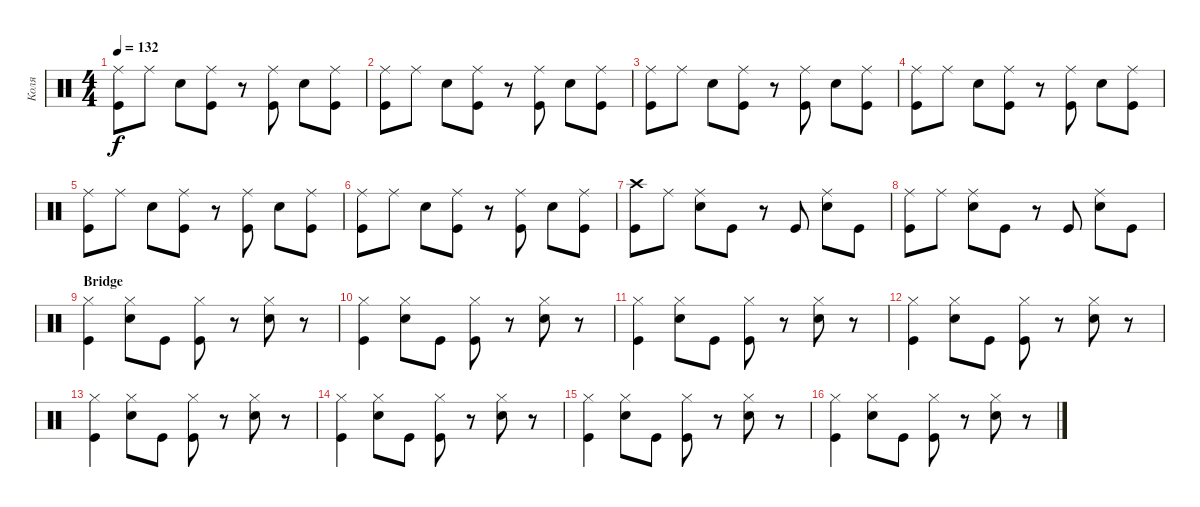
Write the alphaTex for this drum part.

\track ("Коля" "Коля") {instrument percussion}
\staff {score}
\articulation defaults
\ts (4 4)
\tempo 132
\clef neutral
\ks c
("Ride (middle)" "Kick (hit)").8{dy f} "Ride (middle)".8 "Snare (hit) 2".8 ("Ride (middle)" "Kick (hit)").8 r.8 ("Ride (middle)" "Kick (hit)").8 "Snare (hit) 2".8 ("Ride (middle)" "Kick (hit)").8 |
("Ride (middle)" "Kick (hit)").8 "Ride (middle)".8 "Snare (hit) 2".8 ("Ride (middle)" "Kick (hit)").8 r.8 ("Ride (middle)" "Kick (hit)").8 "Snare (hit) 2".8 ("Ride (middle)" "Kick (hit)").8 |
("Ride (middle)" "Kick (hit)").8 "Ride (middle)".8 "Snare (hit) 2".8 ("Ride (middle)" "Kick (hit)").8 r.8 ("Ride (middle)" "Kick (hit)").8 "Snare (hit) 2".8 ("Ride (middle)" "Kick (hit)").8 |
("Ride (middle)" "Kick (hit)").8 "Ride (middle)".8 "Snare (hit) 2".8 ("Ride (middle)" "Kick (hit)").8 r.8 ("Ride (middle)" "Kick (hit)").8 "Snare (hit) 2".8 ("Ride (middle)" "Kick (hit)").8 |
("Ride (middle)" "Kick (hit)").8 "Ride (middle)".8 "Snare (hit) 2".8 ("Ride (middle)" "Kick (hit)").8 r.8 ("Ride (middle)" "Kick (hit)").8 "Snare (hit) 2".8 ("Ride (middle)" "Kick (hit)").8 |
("Ride (middle)" "Kick (hit)").8 "Ride (middle)".8 "Snare (hit) 2".8 ("Ride (middle)" "Kick (hit)").8 r.8 ("Ride (middle)" "Kick (hit)").8 "Snare (hit) 2".8 ("Ride (middle)" "Kick (hit)").8 |
("Crash high (hit)" "Kick (hit)").8 "Ride (middle)".8 ("Ride (middle)" "Snare (hit) 2").8 "Kick (hit)".8 r.8 "Kick (hit)".8 ("Ride (middle)" "Snare (hit) 2").8 "Kick (hit)".8 |
("Ride (middle)" "Kick (hit)").8 "Ride (middle)".8 ("Ride (middle)" "Snare (hit) 2").8 "Kick (hit)".8 r.8 "Kick (hit)".8 ("Ride (middle)" "Snare (hit) 2").8 "Kick (hit)".8 |
\section ("" "Bridge")
("Hi-Hat (closed)" "Kick (hit)").4 ("Hi-Hat (closed)" "Snare (hit) 2").8 "Kick (hit)".8 ("Hi-Hat (closed)" "Kick (hit)").8 r.8 ("Hi-Hat (closed)" "Snare (hit) 2").8 r.8 |
("Hi-Hat (closed)" "Kick (hit)").4 ("Hi-Hat (closed)" "Snare (hit) 2").8 "Kick (hit)".8 ("Hi-Hat (closed)" "Kick (hit)").8 r.8 ("Hi-Hat (closed)" "Snare (hit) 2").8 r.8 |
("Hi-Hat (closed)" "Kick (hit)").4 ("Hi-Hat (closed)" "Snare (hit) 2").8 "Kick (hit)".8 ("Hi-Hat (closed)" "Kick (hit)").8 r.8 ("Hi-Hat (closed)" "Snare (hit) 2").8 r.8 |
("Hi-Hat (closed)" "Kick (hit)").4 ("Hi-Hat (closed)" "Snare (hit) 2").8 "Kick (hit)".8 ("Hi-Hat (closed)" "Kick (hit)").8 r.8 ("Hi-Hat (closed)" "Snare (hit) 2").8 r.8 |
("Hi-Hat (closed)" "Kick (hit)").4 ("Hi-Hat (closed)" "Snare (hit) 2").8 "Kick (hit)".8 ("Hi-Hat (closed)" "Kick (hit)").8 r.8 ("Hi-Hat (closed)" "Snare (hit) 2").8 r.8 |
("Hi-Hat (closed)" "Kick (hit)").4 ("Hi-Hat (closed)" "Snare (hit) 2").8 "Kick (hit)".8 ("Hi-Hat (closed)" "Kick (hit)").8 r.8 ("Hi-Hat (closed)" "Snare (hit) 2").8 r.8 |
("Hi-Hat (closed)" "Kick (hit)").4 ("Hi-Hat (closed)" "Snare (hit) 2").8 "Kick (hit)".8 ("Hi-Hat (closed)" "Kick (hit)").8 r.8 ("Hi-Hat (closed)" "Snare (hit) 2").8 r.8 |
("Hi-Hat (closed)" "Kick (hit)").4 ("Hi-Hat (closed)" "Snare (hit) 2").8 "Kick (hit)".8 ("Hi-Hat (closed)" "Kick (hit)").8 r.8 ("Hi-Hat (closed)" "Snare (hit) 2").8 r.8
